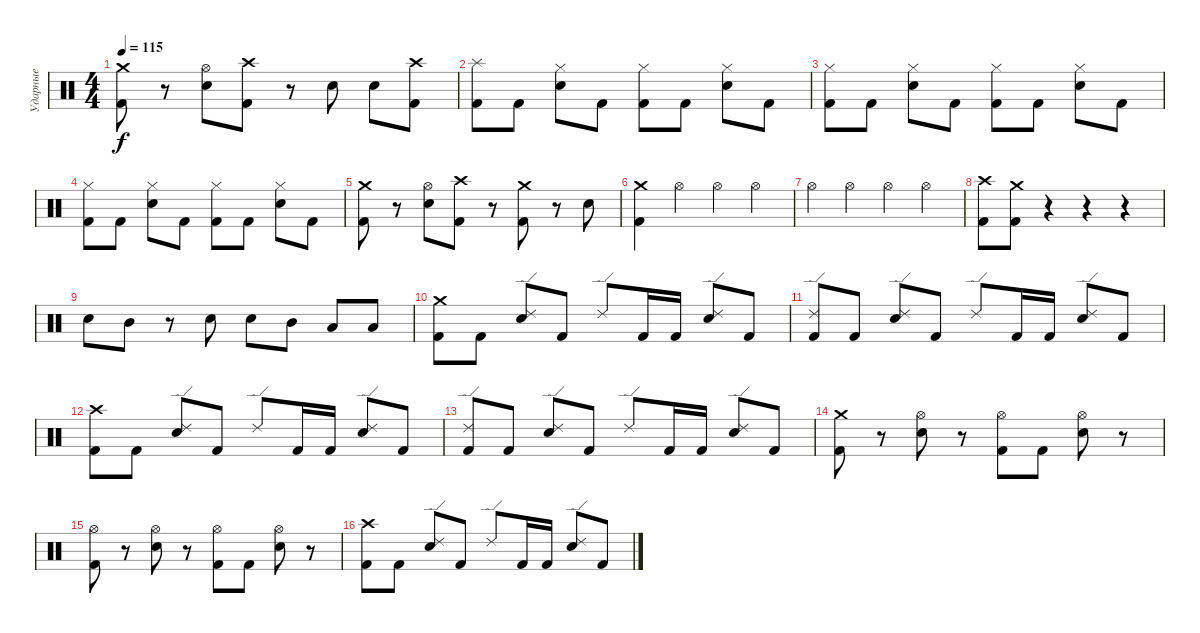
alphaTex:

\track ("Ударные" "Ударные") {instrument percussion}
\staff {score}
\articulation defaults
\ts (4 4)
\tempo 115
\clef neutral
\ks c
("Crash medium (hit)" "Kick (hit) 2").8{dy f} r.8 ("Hi-Hat (open)" "Electric Snare (hit)").8 ("Crash high (hit)" "Kick (hit) 2").8 r.8 "Electric Snare (hit)".8 "Electric Snare (hit)".8 ("Crash high (hit)" "Kick (hit) 2").8 |
("Splash (hit)" "Kick (hit) 2").8 "Kick (hit) 2".8 ("Hi-Hat (closed)" "Electric Snare (hit)").8 "Kick (hit) 2".8 ("Hi-Hat (closed)" "Kick (hit) 2").8 "Kick (hit) 2".8 ("Hi-Hat (closed)" "Electric Snare (hit)").8 "Kick (hit) 2".8 |
("Hi-Hat (closed)" "Kick (hit) 2").8 "Kick (hit) 2".8 ("Hi-Hat (closed)" "Electric Snare (hit)").8 "Kick (hit) 2".8 ("Hi-Hat (closed)" "Kick (hit) 2").8 "Kick (hit) 2".8 ("Hi-Hat (closed)" "Electric Snare (hit)").8 "Kick (hit) 2".8 |
("Hi-Hat (closed)" "Kick (hit) 2").8 "Kick (hit) 2".8 ("Hi-Hat (closed)" "Electric Snare (hit)").8 "Kick (hit) 2".8 ("Hi-Hat (closed)" "Kick (hit) 2").8 "Kick (hit) 2".8 ("Hi-Hat (closed)" "Electric Snare (hit)").8 "Kick (hit) 2".8 |
("Crash medium (hit)" "Kick (hit) 2").8 r.8 ("Hi-Hat (open)" "Electric Snare (hit)").8 ("Crash high (hit)" "Kick (hit) 2").8 r.8 ("Crash medium (hit)" "Kick (hit) 2").8 r.8 "Electric Snare (hit)".8 |
("Crash medium (hit)" "Kick (hit) 2").4 "Hi-Hat (open)".4 "Hi-Hat (open)".4 "Hi-Hat (open)".4 |
"Hi-Hat (open)".4 "Hi-Hat (open)".4 "Hi-Hat (open)".4 "Hi-Hat (open)".4 |
("Crash high (hit)" "Kick (hit) 2").8 ("Crash medium (hit)" "Kick (hit) 2").8 r.4 r.4 r.4 |
"Electric Snare (hit)".8 "Mid Tom (hit)".8 r.8 "Electric Snare (hit)".8 "Electric Snare (hit)".8 "Mid Tom (hit)".8 "Low Tom (hit)".8 "Low Tom (hit)".8 |
("Crash medium (hit)" "Kick (hit) 2").8 "Kick (hit) 2".8 ("Ride (edge) 2" "Electric Snare (hit)").8 "Kick (hit) 2".8 "Ride (edge) 2".8 "Kick (hit) 2".16 "Kick (hit) 2".16 ("Ride (edge) 2" "Electric Snare (hit)").8 "Kick (hit) 2".8 |
("Ride (edge) 2" "Kick (hit) 2").8 "Kick (hit) 2".8 ("Ride (edge) 2" "Electric Snare (hit)").8 "Kick (hit) 2".8 "Ride (edge) 2".8 "Kick (hit) 2".16 "Kick (hit) 2".16 ("Ride (edge) 2" "Electric Snare (hit)").8 "Kick (hit) 2".8 |
("Crash high (hit)" "Kick (hit) 2").8 "Kick (hit) 2".8 ("Ride (edge) 2" "Electric Snare (hit)").8 "Kick (hit) 2".8 "Ride (edge) 2".8 "Kick (hit) 2".16 "Kick (hit) 2".16 ("Ride (edge) 2" "Electric Snare (hit)").8 "Kick (hit) 2".8 |
("Ride (edge) 2" "Kick (hit) 2").8 "Kick (hit) 2".8 ("Ride (edge) 2" "Electric Snare (hit)").8 "Kick (hit) 2".8 "Ride (edge) 2".8 "Kick (hit) 2".16 "Kick (hit) 2".16 ("Ride (edge) 2" "Electric Snare (hit)").8 "Kick (hit) 2".8 |
("Crash medium (hit)" "Kick (hit) 2").8 r.8 ("Hi-Hat (open)" "Electric Snare (hit)").8 r.8 ("Hi-Hat (open)" "Kick (hit) 2").8 "Kick (hit) 2".8 ("Hi-Hat (open)" "Electric Snare (hit)").8 r.8 |
("Hi-Hat (open)" "Kick (hit) 2").8 r.8 ("Hi-Hat (open)" "Electric Snare (hit)").8 r.8 ("Hi-Hat (open)" "Kick (hit) 2").8 "Kick (hit) 2".8 ("Hi-Hat (open)" "Electric Snare (hit)").8 r.8 |
("Crash high (hit)" "Kick (hit) 2").8 "Kick (hit) 2".8 ("Ride (edge) 2" "Electric Snare (hit)").8 "Kick (hit) 2".8 "Ride (edge) 2".8 "Kick (hit) 2".16 "Kick (hit) 2".16 ("Ride (edge) 2" "Electric Snare (hit)").8 "Kick (hit) 2".8
